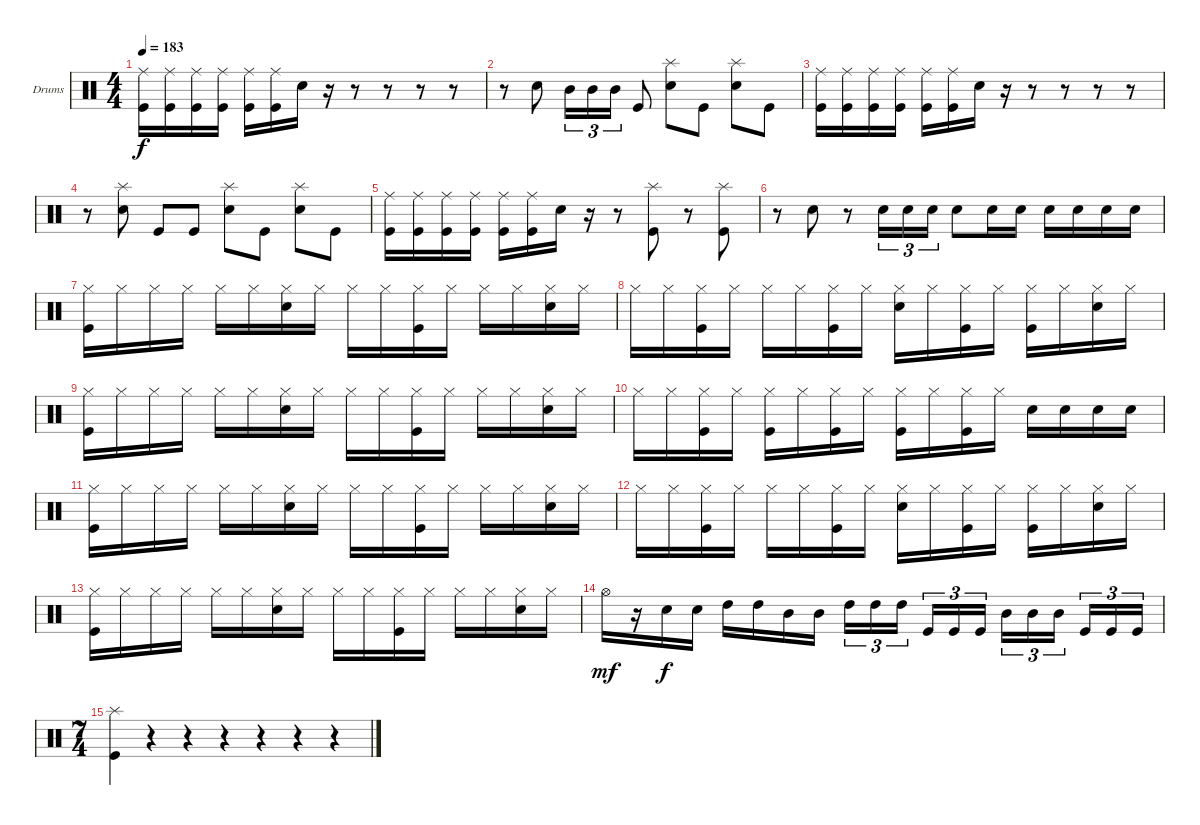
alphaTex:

\bracketExtendMode groupsimilarinstruments
\firstSystemTrackNameOrientation horizontal
\otherSystemsTrackNameOrientation horizontal
\track ("Drumkit" "Drums") {instrument percussion}
\staff {score}
\articulation defaults
\ts (4 4)
\tempo 183
\clef neutral
\ks c
("Kick (hit)" "Ride (middle)").16{dy f} ("Kick (hit)" "Ride (middle)").16 ("Kick (hit)" "Ride (middle)").16 ("Kick (hit)" "Ride (middle)").16 ("Kick (hit)" "Ride (middle)").16 ("Kick (hit)" "Ride (middle)").16 "Snare (hit) 2".16 r.16 r.8 r.8 r.8 r.8 |
r.8 "Snare (hit) 2".8 "Mid Tom (hit)".16{tu (3 2)} "Mid Tom (hit)".16{tu (3 2)} "Mid Tom (hit)".16{tu (3 2)} "Kick (hit)".8 ("Snare (hit) 2" "Splash (hit)").8 "Kick (hit)".8 ("Snare (hit) 2" "Splash (hit)").8 "Kick (hit)".8 |
("Kick (hit)" "Ride (middle)").16 ("Kick (hit)" "Ride (middle)").16 ("Kick (hit)" "Ride (middle)").16 ("Kick (hit)" "Ride (middle)").16 ("Kick (hit)" "Ride (middle)").16 ("Kick (hit)" "Ride (middle)").16 "Snare (hit) 2".16 r.16 r.8 r.8 r.8 r.8 |
r.8 ("Snare (hit) 2" "Splash (hit)").8 "Kick (hit)".8 "Kick (hit)".8 ("Snare (hit) 2" "Splash (hit)").8 "Kick (hit)".8 ("Snare (hit) 2" "Splash (hit)").8 "Kick (hit)".8 |
("Kick (hit)" "Ride (middle)").16 ("Kick (hit)" "Ride (middle)").16 ("Kick (hit)" "Ride (middle)").16 ("Kick (hit)" "Ride (middle)").16 ("Kick (hit)" "Ride (middle)").16 ("Kick (hit)" "Ride (middle)").16 "Snare (hit) 2".16 r.16 r.8 ("Kick (hit)" "Splash (hit)").8 r.8 ("Kick (hit)" "Splash (hit)").8 |
r.8 "Snare (hit) 2".8 r.8 "Snare (hit) 2".16{tu (3 2)} "Snare (hit) 2".16{tu (3 2)} "Snare (hit) 2".16{tu (3 2)} "Snare (hit) 2".8 "Snare (hit) 2".16 "Snare (hit) 2".16 "Snare (hit) 2".16 "Snare (hit) 2".16 "Snare (hit) 2".16 "Snare (hit) 2".16 |
("Hi-Hat (closed)" "Kick (hit)").16 "Hi-Hat (closed)".16 "Hi-Hat (closed)".16 "Hi-Hat (closed)".16 "Hi-Hat (closed)".16 "Hi-Hat (closed)".16 ("Hi-Hat (closed)" "Snare (hit) 2").16 "Hi-Hat (closed)".16 "Hi-Hat (closed)".16 "Hi-Hat (closed)".16 ("Hi-Hat (closed)" "Kick (hit)").16 "Hi-Hat (closed)".16 "Hi-Hat (closed)".16 "Hi-Hat (closed)".16 ("Hi-Hat (closed)" "Snare (hit) 2").16 "Hi-Hat (closed)".16 |
"Hi-Hat (closed)".16 "Hi-Hat (closed)".16 ("Hi-Hat (closed)" "Kick (hit)").16 "Hi-Hat (closed)".16 "Hi-Hat (closed)".16 "Hi-Hat (closed)".16 ("Hi-Hat (closed)" "Kick (hit)").16 "Hi-Hat (closed)".16 ("Hi-Hat (closed)" "Snare (hit) 2").16 "Hi-Hat (closed)".16 ("Hi-Hat (closed)" "Kick (hit)").16 "Hi-Hat (closed)".16 ("Hi-Hat (closed)" "Kick (hit)").16 "Hi-Hat (closed)".16 ("Hi-Hat (closed)" "Snare (hit) 2").16 "Hi-Hat (closed)".16 |
("Hi-Hat (closed)" "Kick (hit)").16 "Hi-Hat (closed)".16 "Hi-Hat (closed)".16 "Hi-Hat (closed)".16 "Hi-Hat (closed)".16 "Hi-Hat (closed)".16 ("Hi-Hat (closed)" "Snare (hit) 2").16 "Hi-Hat (closed)".16 "Hi-Hat (closed)".16 "Hi-Hat (closed)".16 ("Hi-Hat (closed)" "Kick (hit)").16 "Hi-Hat (closed)".16 "Hi-Hat (closed)".16 "Hi-Hat (closed)".16 ("Hi-Hat (closed)" "Snare (hit) 2").16 "Hi-Hat (closed)".16 |
"Hi-Hat (closed)".16 "Hi-Hat (closed)".16 ("Hi-Hat (closed)" "Kick (hit)").16 "Hi-Hat (closed)".16 ("Hi-Hat (closed)" "Kick (hit)").16 "Hi-Hat (closed)".16 ("Hi-Hat (closed)" "Kick (hit)").16 "Hi-Hat (closed)".16 ("Hi-Hat (closed)" "Kick (hit)").16 "Hi-Hat (closed)".16 ("Hi-Hat (closed)" "Kick (hit)").16 "Hi-Hat (closed)".16 "Snare (hit) 2".16 "Snare (hit) 2".16 "Snare (hit) 2".16 "Snare (hit) 2".16 |
("Hi-Hat (closed)" "Kick (hit)").16 "Hi-Hat (closed)".16 "Hi-Hat (closed)".16 "Hi-Hat (closed)".16 "Hi-Hat (closed)".16 "Hi-Hat (closed)".16 ("Hi-Hat (closed)" "Snare (hit) 2").16 "Hi-Hat (closed)".16 "Hi-Hat (closed)".16 "Hi-Hat (closed)".16 ("Hi-Hat (closed)" "Kick (hit)").16 "Hi-Hat (closed)".16 "Hi-Hat (closed)".16 "Hi-Hat (closed)".16 ("Hi-Hat (closed)" "Snare (hit) 2").16 "Hi-Hat (closed)".16 |
"Hi-Hat (closed)".16 "Hi-Hat (closed)".16 ("Hi-Hat (closed)" "Kick (hit)").16 "Hi-Hat (closed)".16 "Hi-Hat (closed)".16 "Hi-Hat (closed)".16 ("Hi-Hat (closed)" "Kick (hit)").16 "Hi-Hat (closed)".16 ("Hi-Hat (closed)" "Snare (hit) 2").16 "Hi-Hat (closed)".16 ("Hi-Hat (closed)" "Kick (hit)").16 "Hi-Hat (closed)".16 ("Hi-Hat (closed)" "Kick (hit)").16 "Hi-Hat (closed)".16 ("Hi-Hat (closed)" "Snare (hit) 2").16 "Hi-Hat (closed)".16 |
("Hi-Hat (closed)" "Kick (hit)").16 "Hi-Hat (closed)".16 "Hi-Hat (closed)".16 "Hi-Hat (closed)".16 "Hi-Hat (closed)".16 "Hi-Hat (closed)".16 ("Hi-Hat (closed)" "Snare (hit) 2").16 "Hi-Hat (closed)".16 "Hi-Hat (closed)".16 "Hi-Hat (closed)".16 ("Hi-Hat (closed)" "Kick (hit)").16 "Hi-Hat (closed)".16 "Hi-Hat (closed)".16 "Hi-Hat (closed)".16 ("Hi-Hat (closed)" "Snare (hit) 2").16 "Hi-Hat (closed)".16 |
"Hi-Hat (open)".16{dy mf} r.16 "Snare (hit) 2".16{dy f} "Snare (hit) 2".16 "High Tom (hit)".16 "High Tom (hit)".16 "Mid Tom (hit)".16 "Mid Tom (hit)".16 "High Tom (hit)".16{tu (3 2)} "High Tom (hit)".16{tu (3 2)} "High Tom (hit)".16{tu (3 2)} "Kick (hit)".16{tu (3 2)} "Kick (hit)".16{tu (3 2)} "Kick (hit)".16{tu (3 2)} "Mid Tom (hit)".16{tu (3 2)} "Mid Tom (hit)".16{tu (3 2)} "Mid Tom (hit)".16{tu (3 2)} "Kick (hit)".16{tu (3 2)} "Kick (hit)".16{tu (3 2)} "Kick (hit)".16{tu (3 2)} |
\ts (7 4)
("Kick (hit)" "Splash (hit)").4 r.4 r.4 r.4 r.4 r.4 r.4
